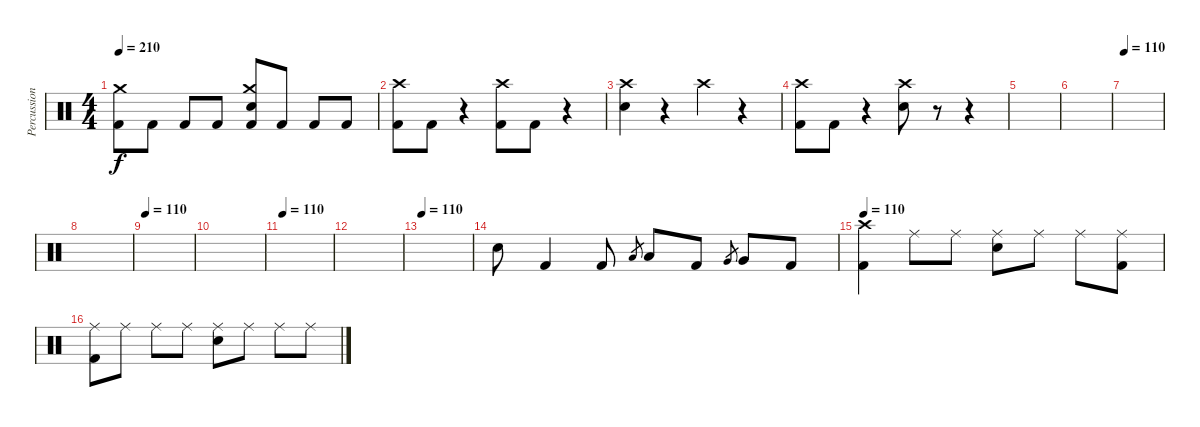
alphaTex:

\track ("Percussions" "Percussion") {instrument percussion}
\staff {score}
\articulation defaults
\ts (4 4)
\tempo 210
\clef neutral
\ks c
("Kick (hit) 2" "Crash medium (hit)").8{dy f} "Kick (hit) 2".8 "Kick (hit) 2".8 "Kick (hit) 2".8 ("Kick (hit) 2" "Electric Snare (hit)" "Crash medium (hit)").8 "Kick (hit) 2".8 "Kick (hit) 2".8 "Kick (hit) 2".8 |
("Kick (hit) 2" "Crash high (hit)").8 "Kick (hit) 2".8 r.4 ("Kick (hit) 2" "Crash high (hit)").8 "Kick (hit) 2".8 r.4 |
("Electric Snare (hit)" "Crash high (hit)").4 r.4 "Crash high (hit)".4 r.4 |
("Kick (hit) 2" "Crash high (hit)").8 "Kick (hit) 2".8 r.4 ("Electric Snare (hit)" "Crash high (hit)").8 r.8 r.4 |
|
|
\tempo 110
|
|
\tempo 110
|
|
\tempo 110
|
|
\tempo 110
|
"Electric Snare (hit)".8 "Kick (hit) 2".4 "Kick (hit) 2".8 "Low Tom (hit)".8{gr} "Low Tom (hit)".8 "Kick (hit) 2".8 "Very Low Tom (hit)".8{gr} "Very Low Tom (hit)".8 "Kick (hit) 2".8 |
\tempo 110
("Kick (hit) 2" "Crash high (hit)").4 "Ride (middle)".8 "Ride (middle)".8 ("Electric Snare (hit)" "Ride (middle)").8 "Ride (middle)".8 "Ride (middle)".8 ("Kick (hit) 2" "Ride (middle)").8 |
("Kick (hit) 2" "Ride (middle)").8 "Ride (middle)".8 "Ride (middle)".8 "Ride (middle)".8 ("Electric Snare (hit)" "Ride (middle)").8 "Ride (middle)".8 "Ride (middle)".8 "Ride (middle)".8
